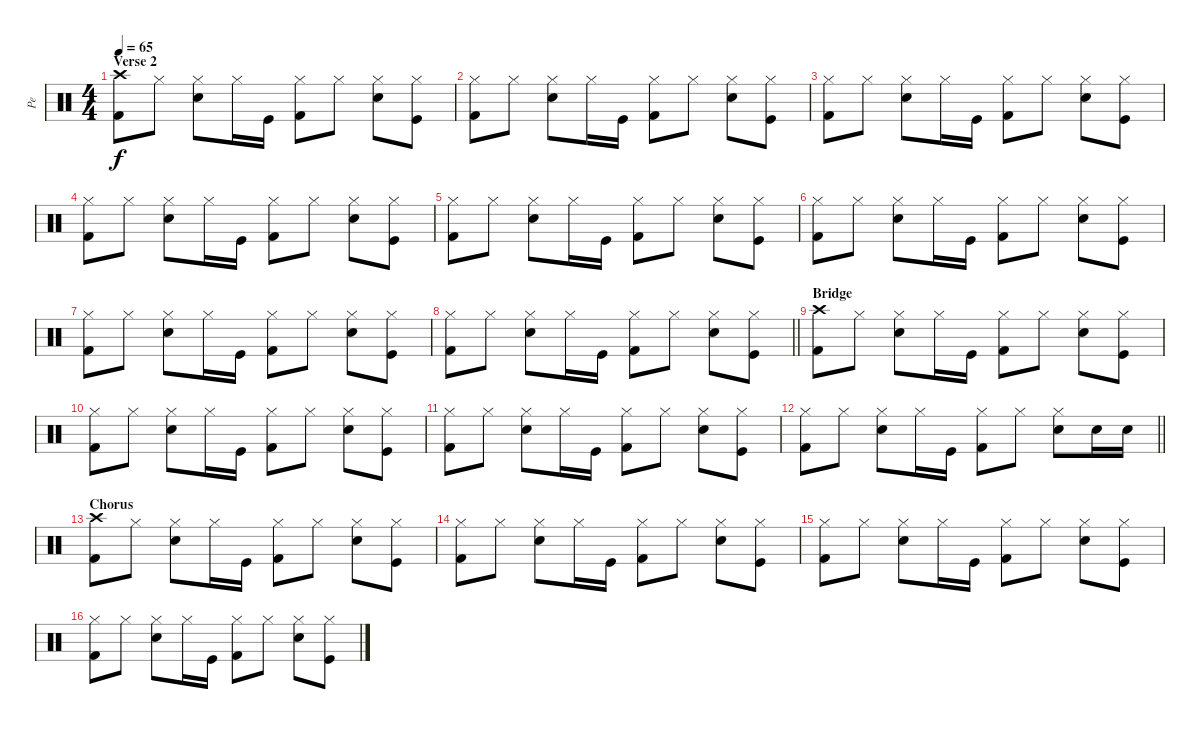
\track ("Pe" "Pe") {instrument percussion}
\staff {score}
\articulation defaults
\ts (4 4)
\section ("" "Verse 2")
\tempo 65
\clef neutral
\ks c
("Kick (hit) 2" "Crash high (hit)").8{dy f} "Hi-Hat (closed)".8 ("Electric Snare (hit)" "Hi-Hat (closed)").8 "Hi-Hat (closed)".16 "Kick (hit)".16 ("Kick (hit) 2" "Hi-Hat (closed)").8 "Hi-Hat (closed)".8 ("Electric Snare (hit)" "Hi-Hat (closed)").8 ("Kick (hit)" "Hi-Hat (closed)").8 |
("Kick (hit) 2" "Hi-Hat (closed)").8 "Hi-Hat (closed)".8 ("Electric Snare (hit)" "Hi-Hat (closed)").8 "Hi-Hat (closed)".16 "Kick (hit)".16 ("Kick (hit) 2" "Hi-Hat (closed)").8 "Hi-Hat (closed)".8 ("Electric Snare (hit)" "Hi-Hat (closed)").8 ("Kick (hit)" "Hi-Hat (closed)").8 |
("Kick (hit) 2" "Hi-Hat (closed)").8 "Hi-Hat (closed)".8 ("Electric Snare (hit)" "Hi-Hat (closed)").8 "Hi-Hat (closed)".16 "Kick (hit)".16 ("Kick (hit) 2" "Hi-Hat (closed)").8 "Hi-Hat (closed)".8 ("Electric Snare (hit)" "Hi-Hat (closed)").8 ("Kick (hit)" "Hi-Hat (closed)").8 |
("Kick (hit) 2" "Hi-Hat (closed)").8 "Hi-Hat (closed)".8 ("Electric Snare (hit)" "Hi-Hat (closed)").8 "Hi-Hat (closed)".16 "Kick (hit)".16 ("Kick (hit) 2" "Hi-Hat (closed)").8 "Hi-Hat (closed)".8 ("Electric Snare (hit)" "Hi-Hat (closed)").8 ("Kick (hit)" "Hi-Hat (closed)").8 |
("Kick (hit) 2" "Hi-Hat (closed)").8 "Hi-Hat (closed)".8 ("Electric Snare (hit)" "Hi-Hat (closed)").8 "Hi-Hat (closed)".16 "Kick (hit)".16 ("Kick (hit) 2" "Hi-Hat (closed)").8 "Hi-Hat (closed)".8 ("Electric Snare (hit)" "Hi-Hat (closed)").8 ("Kick (hit)" "Hi-Hat (closed)").8 |
("Kick (hit) 2" "Hi-Hat (closed)").8 "Hi-Hat (closed)".8 ("Electric Snare (hit)" "Hi-Hat (closed)").8 "Hi-Hat (closed)".16 "Kick (hit)".16 ("Kick (hit) 2" "Hi-Hat (closed)").8 "Hi-Hat (closed)".8 ("Electric Snare (hit)" "Hi-Hat (closed)").8 ("Kick (hit)" "Hi-Hat (closed)").8 |
("Kick (hit) 2" "Hi-Hat (closed)").8 "Hi-Hat (closed)".8 ("Electric Snare (hit)" "Hi-Hat (closed)").8 "Hi-Hat (closed)".16 "Kick (hit)".16 ("Kick (hit) 2" "Hi-Hat (closed)").8 "Hi-Hat (closed)".8 ("Electric Snare (hit)" "Hi-Hat (closed)").8 ("Kick (hit)" "Hi-Hat (closed)").8 |
\barLineRight lightlight
("Kick (hit) 2" "Hi-Hat (closed)").8 "Hi-Hat (closed)".8 ("Electric Snare (hit)" "Hi-Hat (closed)").8 "Hi-Hat (closed)".16 "Kick (hit)".16 ("Kick (hit) 2" "Hi-Hat (closed)").8 "Hi-Hat (closed)".8 ("Electric Snare (hit)" "Hi-Hat (closed)").8 ("Kick (hit)" "Hi-Hat (closed)").8 |
\section ("" "Bridge")
("Kick (hit) 2" "Crash high (hit)").8 "Hi-Hat (closed)".8 ("Electric Snare (hit)" "Hi-Hat (closed)").8 "Hi-Hat (closed)".16 "Kick (hit)".16 ("Kick (hit) 2" "Hi-Hat (closed)").8 "Hi-Hat (closed)".8 ("Electric Snare (hit)" "Hi-Hat (closed)").8 ("Kick (hit)" "Hi-Hat (closed)").8 |
("Kick (hit) 2" "Hi-Hat (closed)").8 "Hi-Hat (closed)".8 ("Electric Snare (hit)" "Hi-Hat (closed)").8 "Hi-Hat (closed)".16 "Kick (hit)".16 ("Kick (hit) 2" "Hi-Hat (closed)").8 "Hi-Hat (closed)".8 ("Electric Snare (hit)" "Hi-Hat (closed)").8 ("Kick (hit)" "Hi-Hat (closed)").8 |
("Kick (hit) 2" "Hi-Hat (closed)").8 "Hi-Hat (closed)".8 ("Electric Snare (hit)" "Hi-Hat (closed)").8 "Hi-Hat (closed)".16 "Kick (hit)".16 ("Kick (hit) 2" "Hi-Hat (closed)").8 "Hi-Hat (closed)".8 ("Electric Snare (hit)" "Hi-Hat (closed)").8 ("Kick (hit)" "Hi-Hat (closed)").8 |
\barLineRight lightlight
("Kick (hit) 2" "Hi-Hat (closed)").8 "Hi-Hat (closed)".8 ("Electric Snare (hit)" "Hi-Hat (closed)").8 "Hi-Hat (closed)".16 "Kick (hit)".16 ("Kick (hit) 2" "Hi-Hat (closed)").8 "Hi-Hat (closed)".8 ("Electric Snare (hit)" "Hi-Hat (closed)").8 "Electric Snare (hit)".16 "Electric Snare (hit)".16 |
\section ("" "Chorus")
("Kick (hit) 2" "Crash high (hit)").8 "Hi-Hat (closed)".8 ("Electric Snare (hit)" "Hi-Hat (closed)").8 "Hi-Hat (closed)".16 "Kick (hit)".16 ("Kick (hit) 2" "Hi-Hat (closed)").8 "Hi-Hat (closed)".8 ("Electric Snare (hit)" "Hi-Hat (closed)").8 ("Kick (hit)" "Hi-Hat (closed)").8 |
("Kick (hit) 2" "Hi-Hat (closed)").8 "Hi-Hat (closed)".8 ("Electric Snare (hit)" "Hi-Hat (closed)").8 "Hi-Hat (closed)".16 "Kick (hit)".16 ("Kick (hit) 2" "Hi-Hat (closed)").8 "Hi-Hat (closed)".8 ("Electric Snare (hit)" "Hi-Hat (closed)").8 ("Kick (hit)" "Hi-Hat (closed)").8 |
("Kick (hit) 2" "Hi-Hat (closed)").8 "Hi-Hat (closed)".8 ("Electric Snare (hit)" "Hi-Hat (closed)").8 "Hi-Hat (closed)".16 "Kick (hit)".16 ("Kick (hit) 2" "Hi-Hat (closed)").8 "Hi-Hat (closed)".8 ("Electric Snare (hit)" "Hi-Hat (closed)").8 ("Kick (hit)" "Hi-Hat (closed)").8 |
("Kick (hit) 2" "Hi-Hat (closed)").8 "Hi-Hat (closed)".8 ("Electric Snare (hit)" "Hi-Hat (closed)").8 "Hi-Hat (closed)".16 "Kick (hit)".16 ("Kick (hit) 2" "Hi-Hat (closed)").8 "Hi-Hat (closed)".8 ("Electric Snare (hit)" "Hi-Hat (closed)").8 ("Kick (hit)" "Hi-Hat (closed)").8
